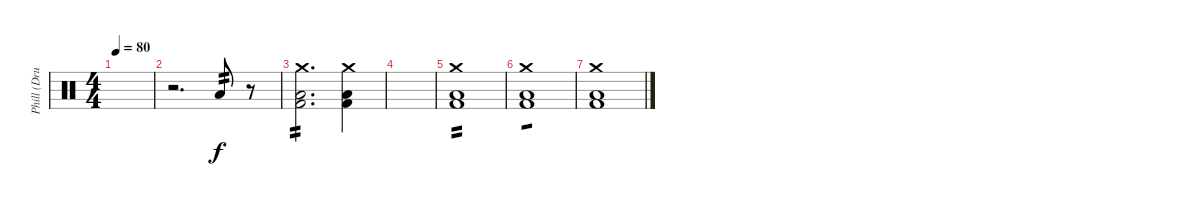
\track ("Phill (Drums)" "Phill (Dru") {instrument percussion}
\staff {score}
\articulation defaults
\ts (4 4)
\tempo 80
\clef neutral
\ks c
|
r.2{d} "Low Floor Tom (hit)".8{tp 2} r.8 |
("Kick (hit) 2" "Low Floor Tom (hit)" "Crash medium (hit)").2{d tp 2} ("Kick (hit) 2" "Low Floor Tom (hit)" "Crash medium (hit)").4 |
|
("Kick (hit) 2" "Low Floor Tom (hit)" "Crash medium (hit)").1{tp 2} |
("Kick (hit) 2" "Low Floor Tom (hit)" "Crash medium (hit)").1{tp 1} |
("Kick (hit) 2" "Low Floor Tom (hit)" "Crash medium (hit)").1
